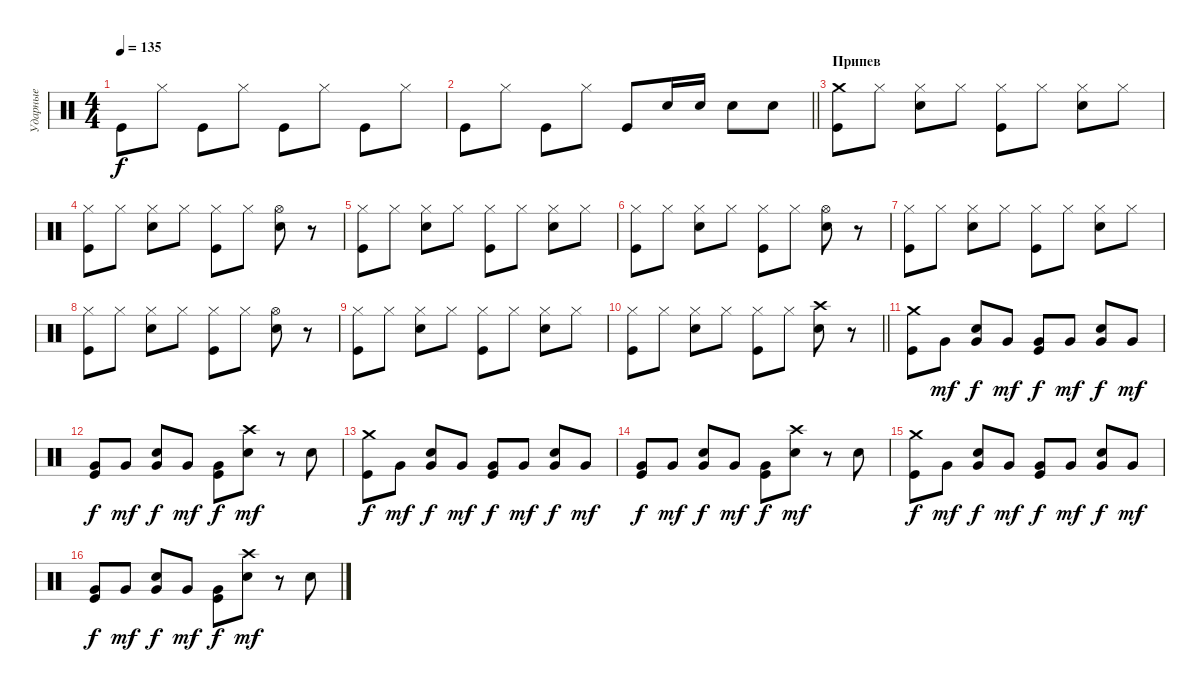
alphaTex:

\track ("Ударные" "Ударные") {instrument percussion}
\staff {score}
\articulation defaults
\ts (4 4)
\tempo 135
\clef neutral
\ks c "Kick (hit)".8{dy f} "Hi-Hat (closed)".8 "Kick (hit)".8 "Hi-Hat (closed)".8 "Kick (hit)".8 "Hi-Hat (closed)".8 "Kick (hit)".8 "Hi-Hat (closed)".8
|
\barLineRight lightlight "Kick (hit)".8 "Hi-Hat (closed)".8 "Kick (hit)".8 "Hi-Hat (closed)".8 "Kick (hit)".8 "Electric Snare (hit)".16 "Electric Snare (hit)".16 "Electric Snare (hit)".8 "Electric Snare (hit)".8
|
\section ("" "Припев")
("Crash medium (hit)" "Kick (hit)").8 "Hi-Hat (closed)".8 ("Hi-Hat (closed)" "Electric Snare (hit)").8 "Hi-Hat (closed)".8 ("Hi-Hat (closed)" "Kick (hit)").8 "Hi-Hat (closed)".8 ("Hi-Hat (closed)" "Electric Snare (hit)").8 "Hi-Hat (closed)".8 |
("Hi-Hat (closed)" "Kick (hit)").8 "Hi-Hat (closed)".8 ("Hi-Hat (closed)" "Electric Snare (hit)").8 "Hi-Hat (closed)".8 ("Hi-Hat (closed)" "Kick (hit)").8 "Hi-Hat (closed)".8 ("Hi-Hat (open)" "Electric Snare (hit)").8 r.8 |
("Hi-Hat (closed)" "Kick (hit)").8 "Hi-Hat (closed)".8 ("Hi-Hat (closed)" "Electric Snare (hit)").8 "Hi-Hat (closed)".8 ("Hi-Hat (closed)" "Kick (hit)").8 "Hi-Hat (closed)".8 ("Hi-Hat (closed)" "Electric Snare (hit)").8 "Hi-Hat (closed)".8 |
("Hi-Hat (closed)" "Kick (hit)").8 "Hi-Hat (closed)".8 ("Hi-Hat (closed)" "Electric Snare (hit)").8 "Hi-Hat (closed)".8 ("Hi-Hat (closed)" "Kick (hit)").8 "Hi-Hat (closed)".8 ("Hi-Hat (open)" "Electric Snare (hit)").8 r.8 |
("Hi-Hat (closed)" "Kick (hit)").8 "Hi-Hat (closed)".8 ("Hi-Hat (closed)" "Electric Snare (hit)").8 "Hi-Hat (closed)".8 ("Hi-Hat (closed)" "Kick (hit)").8 "Hi-Hat (closed)".8 ("Hi-Hat (closed)" "Electric Snare (hit)").8 "Hi-Hat (closed)".8 |
("Hi-Hat (closed)" "Kick (hit)").8 "Hi-Hat (closed)".8 ("Hi-Hat (closed)" "Electric Snare (hit)").8 "Hi-Hat (closed)".8 ("Hi-Hat (closed)" "Kick (hit)").8 "Hi-Hat (closed)".8 ("Hi-Hat (open)" "Electric Snare (hit)").8 r.8 |
("Hi-Hat (closed)" "Kick (hit)").8 "Hi-Hat (closed)".8 ("Hi-Hat (closed)" "Electric Snare (hit)").8 "Hi-Hat (closed)".8 ("Hi-Hat (closed)" "Kick (hit)").8 "Hi-Hat (closed)".8 ("Hi-Hat (closed)" "Electric Snare (hit)").8 "Hi-Hat (closed)".8 |
\barLineRight lightlight
("Hi-Hat (closed)" "Kick (hit)").8 "Hi-Hat (closed)".8 ("Hi-Hat (closed)" "Electric Snare (hit)").8 "Hi-Hat (closed)".8 ("Hi-Hat (closed)" "Kick (hit)").8 "Hi-Hat (closed)".8 ("Crash high (hit)" "Electric Snare (hit)").8 r.8 |
\section ("" " ")
("Crash medium (hit)" "Kick (hit)").8 "Very Low Tom (hit)".8{dy mf} ("Very Low Tom (hit)" "Electric Snare (hit)").8{dy f} "Very Low Tom (hit)".8{dy mf} ("Very Low Tom (hit)" "Kick (hit)").8{dy f} "Very Low Tom (hit)".8{dy mf} ("Very Low Tom (hit)" "Electric Snare (hit)").8{dy f} "Very Low Tom (hit)".8{dy mf} |
("Very Low Tom (hit)" "Kick (hit)").8{dy f} "Very Low Tom (hit)".8{dy mf} ("Very Low Tom (hit)" "Electric Snare (hit)").8{dy f} "Very Low Tom (hit)".8{dy mf} ("Very Low Tom (hit)" "Kick (hit)").8{dy f} ("Crash high (hit)" "Electric Snare (hit)").8{dy mf} r.8 "Electric Snare (hit)".8 |
("Crash medium (hit)" "Kick (hit)").8{dy f} "Very Low Tom (hit)".8{dy mf} ("Very Low Tom (hit)" "Electric Snare (hit)").8{dy f} "Very Low Tom (hit)".8{dy mf} ("Very Low Tom (hit)" "Kick (hit)").8{dy f} "Very Low Tom (hit)".8{dy mf} ("Very Low Tom (hit)" "Electric Snare (hit)").8{dy f} "Very Low Tom (hit)".8{dy mf} |
("Very Low Tom (hit)" "Kick (hit)").8{dy f} "Very Low Tom (hit)".8{dy mf} ("Very Low Tom (hit)" "Electric Snare (hit)").8{dy f} "Very Low Tom (hit)".8{dy mf} ("Very Low Tom (hit)" "Kick (hit)").8{dy f} ("Crash high (hit)" "Electric Snare (hit)").8{dy mf} r.8 "Electric Snare (hit)".8 |
("Crash medium (hit)" "Kick (hit)").8{dy f} "Very Low Tom (hit)".8{dy mf} ("Very Low Tom (hit)" "Electric Snare (hit)").8{dy f} "Very Low Tom (hit)".8{dy mf} ("Very Low Tom (hit)" "Kick (hit)").8{dy f} "Very Low Tom (hit)".8{dy mf} ("Very Low Tom (hit)" "Electric Snare (hit)").8{dy f} "Very Low Tom (hit)".8{dy mf} |
("Very Low Tom (hit)" "Kick (hit)").8{dy f} "Very Low Tom (hit)".8{dy mf} ("Very Low Tom (hit)" "Electric Snare (hit)").8{dy f} "Very Low Tom (hit)".8{dy mf} ("Very Low Tom (hit)" "Kick (hit)").8{dy f} ("Crash high (hit)" "Electric Snare (hit)").8{dy mf} r.8 "Electric Snare (hit)".8
